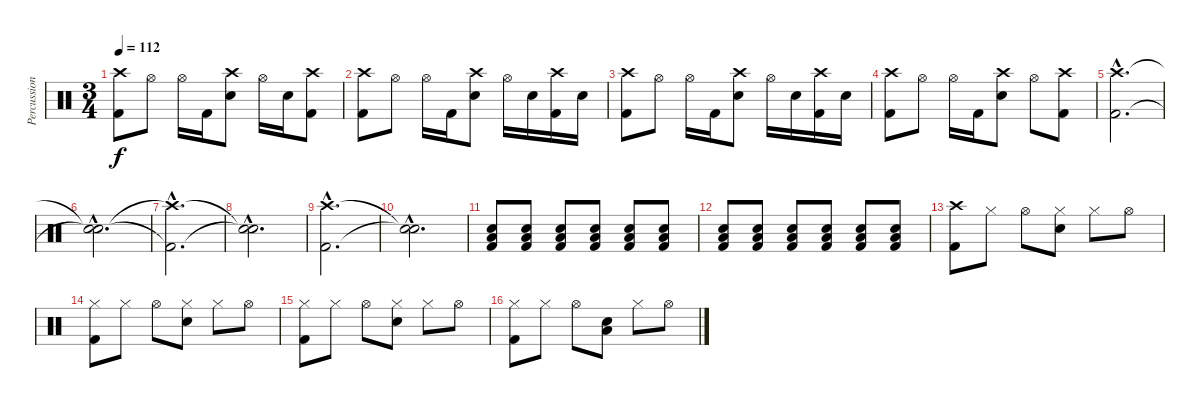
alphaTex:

\track ("Percussions" "Percussion") {instrument percussion}
\staff {score}
\articulation defaults
\ts (3 4)
\tempo 112
\clef neutral
\ks c
("Kick (hit) 2" "Crash high (hit)").8{dy f} "Hi-Hat (open)".8 "Hi-Hat (open)".16 "Kick (hit) 2".16 ("Electric Snare (hit)" "Crash high (hit)").8 "Hi-Hat (open)".16 "Electric Snare (hit)".16 ("Kick (hit) 2" "Crash high (hit)").8 |
("Kick (hit) 2" "Crash high (hit)").8 "Hi-Hat (open)".8 "Hi-Hat (open)".16 "Kick (hit) 2".16 ("Electric Snare (hit)" "Crash high (hit)").8 "Hi-Hat (open)".16 "Electric Snare (hit)".16 ("Kick (hit) 2" "Crash high (hit)").16 "Electric Snare (hit)".16 |
("Kick (hit) 2" "Crash high (hit)").8 "Hi-Hat (open)".8 "Hi-Hat (open)".16 "Kick (hit) 2".16 ("Electric Snare (hit)" "Crash high (hit)").8 "Hi-Hat (open)".16 "Electric Snare (hit)".16 ("Kick (hit) 2" "Crash high (hit)").16 "Electric Snare (hit)".16 |
("Kick (hit) 2" "Crash high (hit)").8 "Hi-Hat (open)".8 "Hi-Hat (open)".16 "Kick (hit) 2".16 ("Electric Snare (hit)" "Crash high (hit)").8 "Hi-Hat (open)".8 ("Kick (hit) 2" "Crash high (hit)").8 |
("Kick (hit) 2"{hac} "Crash high (hit)"{hac}).2{d} |
("Snare (hit)"{hac t} "Snare (hit)"{hac t}).2{d} |
("Kick (hit) 2"{hac t} "Crash high (hit)"{hac t}).2{d} |
("Snare (hit)"{hac t} "Snare (hit)"{hac t}).2{d} |
("Kick (hit) 2"{hac} "Crash high (hit)"{hac}).2{d} |
("Snare (hit)"{hac t} "Snare (hit)"{hac t}).2{d} |
("Kick (hit) 2" "Low Floor Tom (hit)" "Electric Snare (hit)").8 ("Kick (hit) 2" "Low Floor Tom (hit)" "Electric Snare (hit)").8 ("Kick (hit) 2" "Low Floor Tom (hit)" "Electric Snare (hit)").8 ("Kick (hit) 2" "Low Floor Tom (hit)" "Electric Snare (hit)").8 ("Kick (hit) 2" "Low Floor Tom (hit)" "Electric Snare (hit)").8 ("Kick (hit) 2" "Low Floor Tom (hit)" "Electric Snare (hit)").8 |
("Kick (hit) 2" "Low Floor Tom (hit)" "Electric Snare (hit)").8 ("Kick (hit) 2" "Low Floor Tom (hit)" "Electric Snare (hit)").8 ("Kick (hit) 2" "Low Floor Tom (hit)" "Electric Snare (hit)").8 ("Kick (hit) 2" "Low Floor Tom (hit)" "Electric Snare (hit)").8 ("Kick (hit) 2" "Low Floor Tom (hit)" "Electric Snare (hit)").8 ("Kick (hit) 2" "Low Floor Tom (hit)" "Electric Snare (hit)").8 |
("Kick (hit) 2" "Crash high (hit)").8 "Hi-Hat (closed)".8 "Hi-Hat (open)".8 ("Electric Snare (hit)" "Hi-Hat (closed)").8 "Hi-Hat (closed)".8 "Hi-Hat (open)".8 |
("Kick (hit) 2" "Hi-Hat (closed)").8 "Hi-Hat (closed)".8 "Hi-Hat (open)".8 ("Electric Snare (hit)" "Hi-Hat (closed)").8 "Hi-Hat (closed)".8 "Hi-Hat (open)".8 |
("Kick (hit) 2" "Hi-Hat (closed)").8 "Hi-Hat (closed)".8 "Hi-Hat (open)".8 ("Electric Snare (hit)" "Hi-Hat (closed)").8 "Hi-Hat (closed)".8 "Hi-Hat (open)".8 |
("Kick (hit) 2" "Hi-Hat (closed)").8 "Hi-Hat (closed)".8 "Hi-Hat (open)".8 ("Electric Snare (hit)" "Low Floor Tom (hit)").8 "Hi-Hat (closed)".8 "Hi-Hat (open)".8
